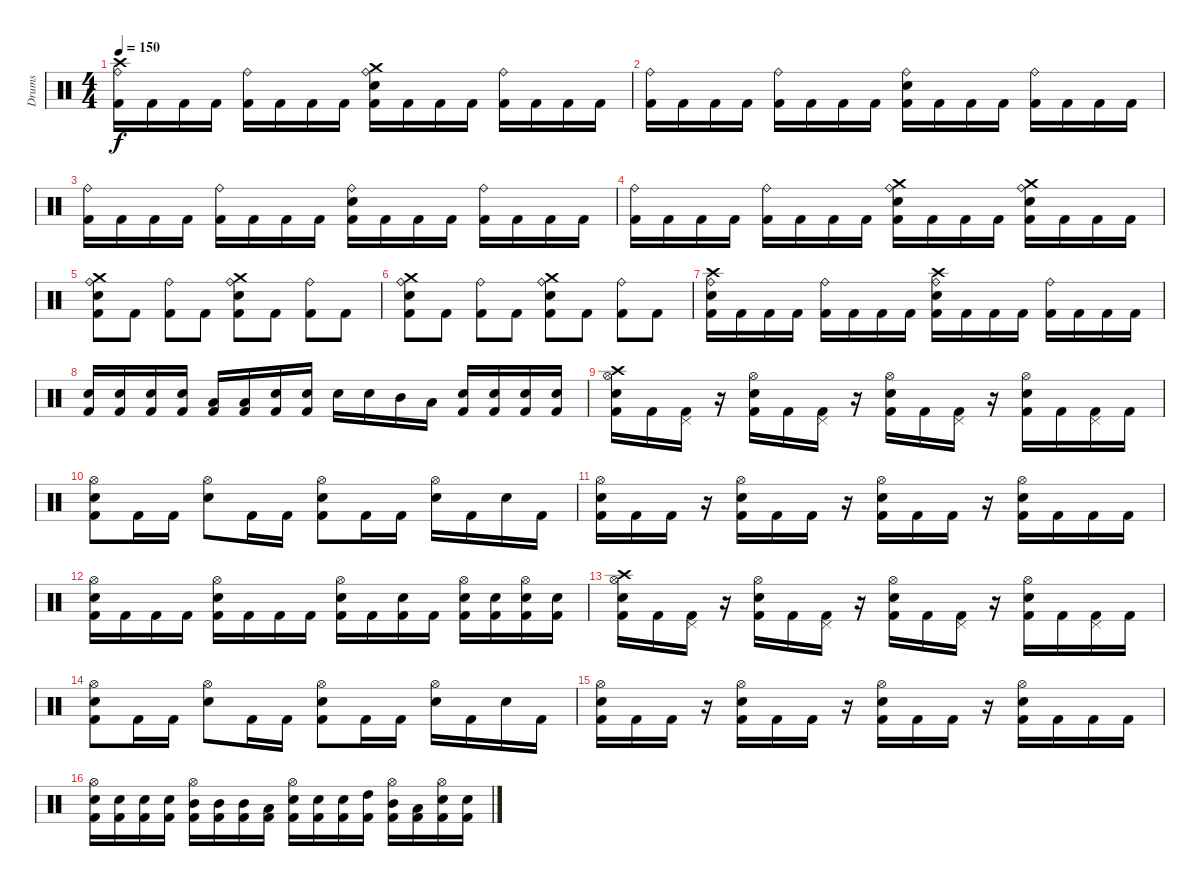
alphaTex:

\track ("Drums" "Drums") {instrument percussion}
\staff {score}
\articulation defaults
\ts (4 4)
\tempo 150
\clef neutral
\ks c
("Crash high (hit)" "Ride (bell)" "Kick (hit) 2").16{dy f} "Kick (hit) 2".16 "Kick (hit) 2".16 "Kick (hit) 2".16 ("Ride (bell)" "Kick (hit) 2").16 "Kick (hit) 2".16 "Kick (hit) 2".16 "Kick (hit) 2".16 ("Crash medium (hit)" "Ride (bell)" "Electric Snare (hit)" "Kick (hit) 2").16 "Kick (hit) 2".16 "Kick (hit) 2".16 "Kick (hit) 2".16 ("Ride (bell)" "Kick (hit) 2").16 "Kick (hit) 2".16 "Kick (hit) 2".16 "Kick (hit) 2".16 |
("Ride (bell)" "Kick (hit) 2").16 "Kick (hit) 2".16 "Kick (hit) 2".16 "Kick (hit) 2".16 ("Ride (bell)" "Kick (hit) 2").16 "Kick (hit) 2".16 "Kick (hit) 2".16 "Kick (hit) 2".16 ("Ride (bell)" "Electric Snare (hit)" "Kick (hit) 2").16 "Kick (hit) 2".16 "Kick (hit) 2".16 "Kick (hit) 2".16 ("Ride (bell)" "Kick (hit) 2").16 "Kick (hit) 2".16 "Kick (hit) 2".16 "Kick (hit) 2".16 |
("Ride (bell)" "Kick (hit) 2").16 "Kick (hit) 2".16 "Kick (hit) 2".16 "Kick (hit) 2".16 ("Ride (bell)" "Kick (hit) 2").16 "Kick (hit) 2".16 "Kick (hit) 2".16 "Kick (hit) 2".16 ("Ride (bell)" "Electric Snare (hit)" "Kick (hit) 2").16 "Kick (hit) 2".16 "Kick (hit) 2".16 "Kick (hit) 2".16 ("Ride (bell)" "Kick (hit) 2").16 "Kick (hit) 2".16 "Kick (hit) 2".16 "Kick (hit) 2".16 |
("Ride (bell)" "Kick (hit) 2").16 "Kick (hit) 2".16 "Kick (hit) 2".16 "Kick (hit) 2".16 ("Ride (bell)" "Kick (hit) 2").16 "Kick (hit) 2".16 "Kick (hit) 2".16 "Kick (hit) 2".16 ("Crash medium (hit)" "Ride (bell)" "Electric Snare (hit)" "Kick (hit) 2").16 "Kick (hit) 2".16 "Kick (hit) 2".16 "Kick (hit) 2".16 ("Crash medium (hit)" "Ride (bell)" "Electric Snare (hit)" "Kick (hit) 2").16 "Kick (hit) 2".16 "Kick (hit) 2".16 "Kick (hit) 2".16 |
("Crash medium (hit)" "Ride (bell)" "Electric Snare (hit)" "Kick (hit) 2").8 "Kick (hit) 2".8 ("Ride (bell)" "Kick (hit) 2").8 "Kick (hit) 2".8 ("Crash medium (hit)" "Ride (bell)" "Electric Snare (hit)" "Kick (hit) 2").8 "Kick (hit) 2".8 ("Ride (bell)" "Kick (hit) 2").8 "Kick (hit) 2".8 |
("Crash medium (hit)" "Ride (bell)" "Electric Snare (hit)" "Kick (hit) 2").8 "Kick (hit) 2".8 ("Ride (bell)" "Kick (hit) 2").8 "Kick (hit) 2".8 ("Crash medium (hit)" "Ride (bell)" "Electric Snare (hit)" "Kick (hit) 2").8 "Kick (hit) 2".8 ("Ride (bell)" "Kick (hit) 2").8 "Kick (hit) 2".8 |
("Crash high (hit)" "Ride (bell)" "Electric Snare (hit)" "Kick (hit) 2").16 "Kick (hit) 2".16 "Kick (hit) 2".16 "Kick (hit) 2".16 ("Ride (bell)" "Kick (hit) 2").16 "Kick (hit) 2".16 "Kick (hit) 2".16 "Kick (hit) 2".16 ("Crash high (hit)" "Ride (bell)" "Electric Snare (hit)" "Kick (hit) 2").16 "Kick (hit) 2".16 "Kick (hit) 2".16 "Kick (hit) 2".16 ("Ride (bell)" "Kick (hit) 2").16 "Kick (hit) 2".16 "Kick (hit) 2".16 "Kick (hit) 2".16 |
("Electric Snare (hit)" "Kick (hit) 2").16 ("Electric Snare (hit)" "Kick (hit) 2").16 ("Electric Snare (hit)" "Kick (hit) 2").16 ("Electric Snare (hit)" "Kick (hit) 2").16 ("Low Tom (hit)" "Kick (hit) 2").16 ("Low Tom (hit)" "Kick (hit) 2").16 ("Electric Snare (hit)" "Kick (hit) 2").16 ("Electric Snare (hit)" "Kick (hit) 2").16 "Electric Snare (hit)".16 "Electric Snare (hit)".16 "Mid Tom (hit)".16 "Low Tom (hit)".16 ("Electric Snare (hit)" "Kick (hit) 2").16 ("Electric Snare (hit)" "Kick (hit) 2").16 ("Electric Snare (hit)" "Kick (hit) 2").16 ("Electric Snare (hit)" "Kick (hit) 2").16 |
("Crash high (hit)" "Hi-Hat (open)" "Electric Snare (hit)" "Kick (hit) 2").16 "Kick (hit) 2".16 ("Pedal Hi-Hat (hit)" "Kick (hit) 2").16 r.16 ("Hi-Hat (open)" "Electric Snare (hit)" "Kick (hit) 2").16 "Kick (hit) 2".16 ("Pedal Hi-Hat (hit)" "Kick (hit) 2").16 r.16 ("Hi-Hat (open)" "Electric Snare (hit)" "Kick (hit) 2").16 "Kick (hit) 2".16 ("Pedal Hi-Hat (hit)" "Kick (hit) 2").16 r.16 ("Hi-Hat (open)" "Electric Snare (hit)" "Kick (hit) 2").16 "Kick (hit) 2".16 ("Pedal Hi-Hat (hit)" "Kick (hit) 2").16 "Kick (hit) 2".16 |
("Hi-Hat (open)" "Electric Snare (hit)" "Kick (hit) 2").8 "Kick (hit) 2".16 "Kick (hit) 2".16 ("Hi-Hat (open)" "Electric Snare (hit)").8 "Kick (hit) 2".16 "Kick (hit) 2".16 ("Hi-Hat (open)" "Electric Snare (hit)" "Kick (hit) 2").8 "Kick (hit) 2".16 "Kick (hit) 2".16 ("Hi-Hat (open)" "Electric Snare (hit)").16 "Kick (hit) 2".16 "Electric Snare (hit)".16 "Kick (hit) 2".16 |
("Hi-Hat (open)" "Electric Snare (hit)" "Kick (hit) 2").16 "Kick (hit) 2".16 "Kick (hit) 2".16 r.16 ("Hi-Hat (open)" "Electric Snare (hit)" "Kick (hit) 2").16 "Kick (hit) 2".16 "Kick (hit) 2".16 r.16 ("Hi-Hat (open)" "Electric Snare (hit)" "Kick (hit) 2").16 "Kick (hit) 2".16 "Kick (hit) 2".16 r.16 ("Hi-Hat (open)" "Electric Snare (hit)" "Kick (hit) 2").16 "Kick (hit) 2".16 "Kick (hit) 2".16 "Kick (hit) 2".16 |
("Hi-Hat (open)" "Electric Snare (hit)" "Kick (hit) 2").16 "Kick (hit) 2".16 "Kick (hit) 2".16 "Kick (hit) 2".16 ("Hi-Hat (open)" "Electric Snare (hit)" "Kick (hit) 2").16 "Kick (hit) 2".16 "Kick (hit) 2".16 "Kick (hit) 2".16 ("Hi-Hat (open)" "Electric Snare (hit)" "Kick (hit) 2").16 "Kick (hit) 2".16 ("Electric Snare (hit)" "Kick (hit) 2").16 "Kick (hit) 2".16 ("Hi-Hat (open)" "Electric Snare (hit)" "Kick (hit) 2").16 ("Electric Snare (hit)" "Kick (hit) 2").16 ("Hi-Hat (open)" "Electric Snare (hit)" "Kick (hit) 2").16 ("Electric Snare (hit)" "Kick (hit) 2").16 |
("Crash high (hit)" "Hi-Hat (open)" "Electric Snare (hit)" "Kick (hit) 2").16 "Kick (hit) 2".16 ("Pedal Hi-Hat (hit)" "Kick (hit) 2").16 r.16 ("Hi-Hat (open)" "Electric Snare (hit)" "Kick (hit) 2").16 "Kick (hit) 2".16 ("Pedal Hi-Hat (hit)" "Kick (hit) 2").16 r.16 ("Hi-Hat (open)" "Electric Snare (hit)" "Kick (hit) 2").16 "Kick (hit) 2".16 ("Pedal Hi-Hat (hit)" "Kick (hit) 2").16 r.16 ("Hi-Hat (open)" "Electric Snare (hit)" "Kick (hit) 2").16 "Kick (hit) 2".16 ("Pedal Hi-Hat (hit)" "Kick (hit) 2").16 "Kick (hit) 2".16 |
("Hi-Hat (open)" "Electric Snare (hit)" "Kick (hit) 2").8 "Kick (hit) 2".16 "Kick (hit) 2".16 ("Hi-Hat (open)" "Electric Snare (hit)").8 "Kick (hit) 2".16 "Kick (hit) 2".16 ("Hi-Hat (open)" "Electric Snare (hit)" "Kick (hit) 2").8 "Kick (hit) 2".16 "Kick (hit) 2".16 ("Hi-Hat (open)" "Electric Snare (hit)").16 "Kick (hit) 2".16 "Electric Snare (hit)".16 "Kick (hit) 2".16 |
("Hi-Hat (open)" "Electric Snare (hit)" "Kick (hit) 2").16 "Kick (hit) 2".16 "Kick (hit) 2".16 r.16 ("Hi-Hat (open)" "Electric Snare (hit)" "Kick (hit) 2").16 "Kick (hit) 2".16 "Kick (hit) 2".16 r.16 ("Hi-Hat (open)" "Electric Snare (hit)" "Kick (hit) 2").16 "Kick (hit) 2".16 "Kick (hit) 2".16 r.16 ("Hi-Hat (open)" "Electric Snare (hit)" "Kick (hit) 2").16 "Kick (hit) 2".16 "Kick (hit) 2".16 "Kick (hit) 2".16 |
("Hi-Hat (open)" "Electric Snare (hit)" "Kick (hit) 2").16 ("Electric Snare (hit)" "Kick (hit) 2").16 ("Electric Snare (hit)" "Kick (hit) 2").16 ("Electric Snare (hit)" "Kick (hit) 2").16 ("Hi-Hat (open)" "Mid Tom (hit)" "Kick (hit) 2").16 ("Mid Tom (hit)" "Kick (hit) 2").16 ("Mid Tom (hit)" "Kick (hit) 2").16 ("Low Tom (hit)" "Kick (hit) 2").16 ("Hi-Hat (open)" "Electric Snare (hit)" "Kick (hit) 2").16 ("Electric Snare (hit)" "Kick (hit) 2").16 ("Electric Snare (hit)" "Kick (hit) 2").16 ("High Tom (hit)" "Kick (hit) 2").16 ("Hi-Hat (open)" "Mid Tom (hit)" "Kick (hit) 2").16 ("Low Tom (hit)" "Kick (hit) 2").16 ("Hi-Hat (open)" "Electric Snare (hit)" "Kick (hit) 2").16 ("Electric Snare (hit)" "Kick (hit) 2").16
